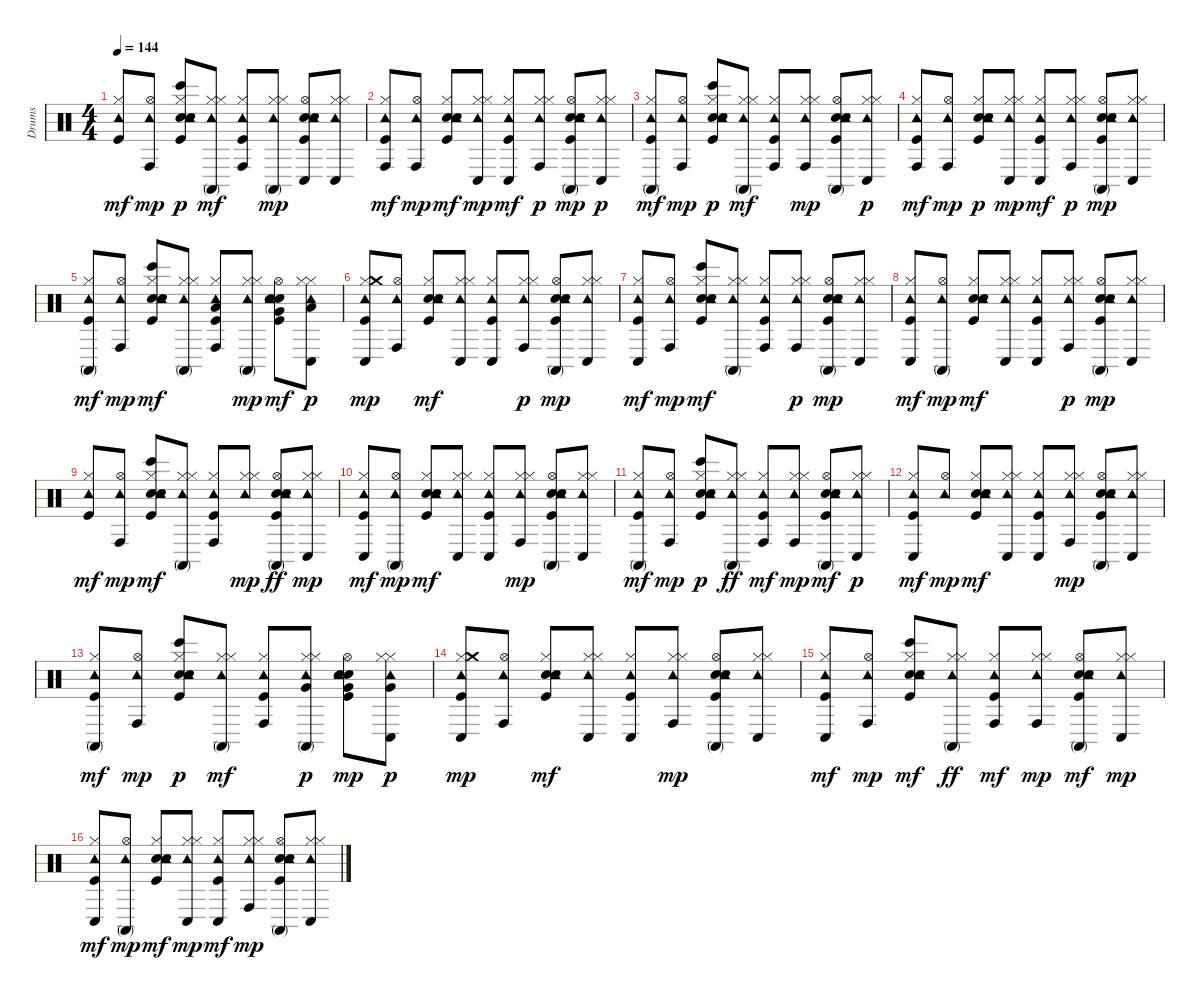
\track ("Drums" "Drums") {instrument percussion}
\staff {score}
\articulation defaults
\ts (4 4)
\tempo 144
\clef neutral
\ks c
("Kick (hit)" "Hi-Hat (closed)" "Tambourine (hit)").8{dy mf} ("Hi-Hat (open)" "Tambourine (hit)" "Conga high (hit)").8{dy mp} ("Kick (hit)" "Snare (hit) 2" "Hand Clap (hit)" "Hi-Hat (closed)" "Tambourine (hit)" "Bongo High (hit)").8{dy p} ("Hi-Hat (closed)" "Tambourine (hit)" "Conga high (mute)" "Hi-Hat (closed)").8{dy mf} ("Kick (hit)" "Hi-Hat (closed)" "Tambourine (hit)" "Conga high (hit)").8 ("Hi-Hat (closed)" "Tambourine (hit)" "Conga high (mute)" "Hi-Hat (closed)").8{dy mp} ("Kick (hit)" "Snare (hit) 2" "Hand Clap (hit)" "Hi-Hat (open)" "Tambourine (hit)" "Conga low (hit)").8 ("Hi-Hat (closed)" "Tambourine (hit)" "Conga low (hit)" "Hi-Hat (closed)").8 |
("Kick (hit)" "Hi-Hat (closed)" "Tambourine (hit)" "Conga high (hit)").8{dy mf} ("Hi-Hat (open)" "Tambourine (hit)" "Conga high (hit)").8{dy mp} ("Kick (hit)" "Snare (hit) 2" "Hand Clap (hit)" "Hi-Hat (closed)" "Tambourine (hit)").8{dy mf} ("Hi-Hat (closed)" "Tambourine (hit)" "Conga low (hit)" "Hi-Hat (closed)").8{dy mp} ("Kick (hit)" "Hi-Hat (closed)" "Tambourine (hit)" "Conga low (hit)").8{dy mf} ("Hi-Hat (closed)" "Tambourine (hit)" "Conga high (hit)" "Hi-Hat (closed)").8{dy p} ("Kick (hit)" "Snare (hit) 2" "Hand Clap (hit)" "Hi-Hat (open)" "Tambourine (hit)" "Conga high (mute)").8{dy mp} ("Hi-Hat (closed)" "Tambourine (hit)" "Conga low (hit)" "Hi-Hat (closed)").8{dy p} |
("Kick (hit)" "Hi-Hat (closed)" "Tambourine (hit)" "Conga high (mute)").8{dy mf} ("Hi-Hat (open)" "Tambourine (hit)" "Conga high (hit)").8{dy mp} ("Kick (hit)" "Snare (hit) 2" "Hand Clap (hit)" "Hi-Hat (closed)" "Tambourine (hit)" "Bongo High (hit)").8{dy p} ("Hi-Hat (closed)" "Tambourine (hit)" "Conga high (mute)" "Hi-Hat (closed)").8{dy mf} ("Kick (hit)" "Hi-Hat (closed)" "Tambourine (hit)" "Conga high (hit)").8 ("Hi-Hat (closed)" "Tambourine (hit)" "Conga high (hit)" "Hi-Hat (closed)").8{dy mp} ("Kick (hit)" "Snare (hit) 2" "Hand Clap (hit)" "Hi-Hat (open)" "Tambourine (hit)" "Conga high (mute)").8 ("Hi-Hat (closed)" "Tambourine (hit)" "Conga low (hit)" "Hi-Hat (closed)").8{dy p} |
("Kick (hit)" "Hi-Hat (closed)" "Tambourine (hit)" "Conga high (hit)").8{dy mf} ("Hi-Hat (open)" "Tambourine (hit)" "Conga high (hit)").8{dy mp} ("Kick (hit)" "Snare (hit) 2" "Hand Clap (hit)" "Hi-Hat (closed)" "Tambourine (hit)").8{dy p} ("Hi-Hat (closed)" "Tambourine (hit)" "Conga low (hit)" "Hi-Hat (closed)").8{dy mp} ("Kick (hit)" "Hi-Hat (closed)" "Tambourine (hit)" "Conga low (hit)").8{dy mf} ("Hi-Hat (closed)" "Tambourine (hit)" "Conga high (hit)" "Hi-Hat (closed)").8{dy p} ("Kick (hit)" "Snare (hit) 2" "Hand Clap (hit)" "Hi-Hat (open)" "Tambourine (hit)" "Conga high (mute)").8{dy mp} ("Hi-Hat (closed)" "Tambourine (hit)" "Conga low (hit)" "Hi-Hat (closed)").8 |
("Kick (hit)" "Hi-Hat (closed)" "Tambourine (hit)" "Conga high (mute)").8{dy mf} ("Hi-Hat (open)" "Tambourine (hit)" "Conga high (hit)").8{dy mp} ("Kick (hit)" "Snare (hit) 2" "Hand Clap (hit)" "Hi-Hat (closed)" "Tambourine (hit)" "Bongo High (hit)").8{dy mf} ("Hi-Hat (closed)" "Tambourine (hit)" "Conga high (mute)" "Hi-Hat (closed)").8 ("Kick (hit)" "Hi-Hat (closed)" "Low Tom (hit)" "Tambourine (hit)" "Conga high (hit)").8 ("Hi-Hat (closed)" "Tambourine (hit)" "Conga high (mute)" "Hi-Hat (closed)").8{dy mp} ("Kick (hit)" "Snare (hit) 2" "Hand Clap (hit)" "Very Low Tom (hit)" "Hi-Hat (open)" "Tambourine (hit)").8{dy mf} ("Low Floor Tom (hit)" "Hi-Hat (closed)" "Tambourine (hit)" "Conga low (hit)" "Hi-Hat (closed)").8{dy p} |
("Kick (hit)" "Hi-Hat (closed)" "Tambourine (hit)" "Crash medium (hit)" "Conga low (hit)").8{dy mp} ("Hi-Hat (open)" "Tambourine (hit)" "Conga high (hit)").8 ("Kick (hit)" "Snare (hit) 2" "Hand Clap (hit)" "Hi-Hat (closed)" "Tambourine (hit)").8{dy mf} ("Hi-Hat (closed)" "Tambourine (hit)" "Conga low (hit)" "Hi-Hat (closed)").8 ("Kick (hit)" "Hi-Hat (closed)" "Tambourine (hit)" "Conga low (hit)").8 ("Hi-Hat (closed)" "Tambourine (hit)" "Conga high (hit)" "Hi-Hat (closed)").8{dy p} ("Kick (hit)" "Snare (hit) 2" "Hand Clap (hit)" "Hi-Hat (open)" "Tambourine (hit)" "Conga high (mute)").8{dy mp} ("Hi-Hat (closed)" "Tambourine (hit)" "Conga low (hit)" "Hi-Hat (closed)").8 |
("Kick (hit)" "Hi-Hat (closed)" "Tambourine (hit)" "Conga low (hit)").8{dy mf} ("Hi-Hat (open)" "Tambourine (hit)" "Conga high (hit)").8{dy mp} ("Kick (hit)" "Snare (hit) 2" "Hand Clap (hit)" "Hi-Hat (closed)" "Tambourine (hit)" "Bongo High (hit)").8{dy mf} ("Hi-Hat (closed)" "Tambourine (hit)" "Conga high (mute)" "Hi-Hat (closed)").8 ("Kick (hit)" "Hi-Hat (closed)" "Tambourine (hit)" "Conga high (hit)").8 ("Hi-Hat (closed)" "Tambourine (hit)" "Conga high (hit)" "Hi-Hat (closed)").8{dy p} ("Kick (hit)" "Snare (hit) 2" "Hand Clap (hit)" "Hi-Hat (open)" "Tambourine (hit)" "Conga high (mute)").8{dy mp} ("Hi-Hat (closed)" "Tambourine (hit)" "Conga low (hit)" "Hi-Hat (closed)").8 |
("Kick (hit)" "Hi-Hat (closed)" "Tambourine (hit)" "Conga low (hit)").8{dy mf} ("Hi-Hat (open)" "Tambourine (hit)" "Conga high (mute)").8{dy mp} ("Kick (hit)" "Snare (hit) 2" "Hand Clap (hit)" "Hi-Hat (closed)" "Tambourine (hit)").8{dy mf} ("Hi-Hat (closed)" "Tambourine (hit)" "Conga low (hit)" "Hi-Hat (closed)").8 ("Kick (hit)" "Hi-Hat (closed)" "Tambourine (hit)" "Conga low (hit)").8 ("Hi-Hat (closed)" "Tambourine (hit)" "Conga high (hit)" "Hi-Hat (closed)").8{dy p} ("Kick (hit)" "Snare (hit) 2" "Hand Clap (hit)" "Hi-Hat (open)" "Tambourine (hit)" "Conga high (mute)").8{dy mp} ("Hi-Hat (closed)" "Tambourine (hit)" "Conga low (hit)" "Hi-Hat (closed)").8 |
("Kick (hit)" "Hi-Hat (closed)" "Tambourine (hit)").8{dy mf} ("Hi-Hat (open)" "Tambourine (hit)" "Conga high (hit)").8{dy mp} ("Kick (hit)" "Snare (hit) 2" "Hand Clap (hit)" "Hi-Hat (closed)" "Tambourine (hit)" "Bongo High (hit)").8{dy mf} ("Hi-Hat (closed)" "Tambourine (hit)" "Conga high (mute)" "Hi-Hat (closed)").8 ("Kick (hit)" "Hi-Hat (closed)" "Tambourine (hit)" "Conga high (hit)").8 ("Hi-Hat (closed)" "Tambourine (hit)" "Hi-Hat (closed)").8{dy mp} ("Kick (hit)" "Snare (hit) 2" "Hand Clap (hit)" "Hi-Hat (open)" "Tambourine (hit)" "Conga high (mute)").8{dy ff} ("Hi-Hat (closed)" "Tambourine (hit)" "Conga low (hit)" "Hi-Hat (closed)").8{dy mp} |
("Kick (hit)" "Hi-Hat (closed)" "Tambourine (hit)" "Conga low (hit)").8{dy mf} ("Hi-Hat (open)" "Tambourine (hit)" "Conga high (mute)").8{dy mp} ("Kick (hit)" "Snare (hit) 2" "Hand Clap (hit)" "Hi-Hat (closed)" "Tambourine (hit)").8{dy mf} ("Hi-Hat (closed)" "Tambourine (hit)" "Conga low (hit)" "Hi-Hat (closed)").8 ("Kick (hit)" "Hi-Hat (closed)" "Tambourine (hit)" "Conga low (hit)").8 ("Hi-Hat (closed)" "Tambourine (hit)" "Conga high (hit)" "Hi-Hat (closed)").8{dy mp} ("Kick (hit)" "Snare (hit) 2" "Hand Clap (hit)" "Hi-Hat (open)" "Tambourine (hit)" "Conga high (mute)").8 ("Hi-Hat (closed)" "Tambourine (hit)" "Conga low (hit)" "Hi-Hat (closed)").8 |
("Kick (hit)" "Hi-Hat (closed)" "Tambourine (hit)" "Conga high (mute)").8{dy mf} ("Hi-Hat (open)" "Tambourine (hit)" "Conga high (hit)").8{dy mp} ("Kick (hit)" "Snare (hit) 2" "Hand Clap (hit)" "Hi-Hat (closed)" "Tambourine (hit)" "Bongo High (hit)").8{dy p} ("Hi-Hat (closed)" "Tambourine (hit)" "Conga high (mute)" "Hi-Hat (closed)").8{dy ff} ("Kick (hit)" "Hi-Hat (closed)" "Tambourine (hit)" "Conga high (hit)").8{dy mf} ("Hi-Hat (closed)" "Tambourine (hit)" "Conga high (hit)" "Hi-Hat (closed)").8{dy mp} ("Kick (hit)" "Snare (hit) 2" "Hand Clap (hit)" "Hi-Hat (open)" "Tambourine (hit)" "Conga high (mute)").8{dy mf} ("Hi-Hat (closed)" "Tambourine (hit)" "Conga low (hit)" "Hi-Hat (closed)").8{dy p} |
("Kick (hit)" "Hi-Hat (closed)" "Tambourine (hit)" "Conga low (hit)").8{dy mf} ("Hi-Hat (open)" "Tambourine (hit)").8{dy mp} ("Kick (hit)" "Snare (hit) 2" "Hand Clap (hit)" "Hi-Hat (closed)" "Tambourine (hit)").8{dy mf} ("Hi-Hat (closed)" "Tambourine (hit)" "Conga low (hit)" "Hi-Hat (closed)").8 ("Kick (hit)" "Hi-Hat (closed)" "Tambourine (hit)" "Conga low (hit)").8 ("Hi-Hat (closed)" "Tambourine (hit)" "Conga high (hit)" "Hi-Hat (closed)").8{dy mp} ("Kick (hit)" "Snare (hit) 2" "Hand Clap (hit)" "Hi-Hat (open)" "Tambourine (hit)" "Conga high (mute)").8 ("Hi-Hat (closed)" "Tambourine (hit)" "Conga low (hit)" "Hi-Hat (closed)").8 |
("Kick (hit)" "Hi-Hat (closed)" "Tambourine (hit)" "Conga high (mute)").8{dy mf} ("Hi-Hat (open)" "Tambourine (hit)" "Conga high (hit)").8{dy mp} ("Kick (hit)" "Snare (hit) 2" "Hand Clap (hit)" "Hi-Hat (closed)" "Tambourine (hit)" "Bongo High (hit)").8{dy p} ("Hi-Hat (closed)" "Tambourine (hit)" "Conga high (mute)" "Hi-Hat (closed)").8{dy mf} ("Kick (hit)" "Hi-Hat (closed)" "Tambourine (hit)" "Conga high (hit)").8 ("Hi-Hat (closed)" "Very Low Tom (hit)" "Tambourine (hit)" "Conga high (mute)" "Hi-Hat (closed)").8{dy p} ("Kick (hit)" "Snare (hit) 2" "Hand Clap (hit)" "Very Low Tom (hit)" "Hi-Hat (open)" "Tambourine (hit)").8{dy mp} ("Hi-Hat (closed)" "Very Low Tom (hit)" "Tambourine (hit)" "Conga low (hit)" "Hi-Hat (closed)").8{dy p} |
("Kick (hit)" "Hi-Hat (closed)" "Tambourine (hit)" "Crash medium (hit)" "Conga low (hit)").8{dy mp} ("Hi-Hat (open)" "Tambourine (hit)" "Conga high (hit)").8 ("Kick (hit)" "Snare (hit) 2" "Hand Clap (hit)" "Hi-Hat (closed)" "Tambourine (hit)").8{dy mf} ("Hi-Hat (closed)" "Tambourine (hit)" "Conga low (hit)" "Hi-Hat (closed)").8 ("Kick (hit)" "Hi-Hat (closed)" "Tambourine (hit)" "Conga low (hit)").8 ("Hi-Hat (closed)" "Tambourine (hit)" "Conga high (hit)" "Hi-Hat (closed)").8{dy mp} ("Kick (hit)" "Snare (hit) 2" "Hand Clap (hit)" "Hi-Hat (open)" "Tambourine (hit)" "Conga high (mute)").8 ("Hi-Hat (closed)" "Tambourine (hit)" "Conga low (hit)" "Hi-Hat (closed)").8 |
("Kick (hit)" "Hi-Hat (closed)" "Tambourine (hit)" "Conga low (hit)").8{dy mf} ("Hi-Hat (open)" "Tambourine (hit)" "Conga high (hit)").8{dy mp} ("Kick (hit)" "Snare (hit) 2" "Hand Clap (hit)" "Hi-Hat (closed)" "Tambourine (hit)" "Bongo High (hit)").8{dy mf} ("Hi-Hat (closed)" "Tambourine (hit)" "Conga high (mute)" "Hi-Hat (closed)").8{dy ff} ("Kick (hit)" "Hi-Hat (closed)" "Tambourine (hit)" "Conga high (hit)").8{dy mf} ("Hi-Hat (closed)" "Tambourine (hit)" "Conga high (hit)" "Hi-Hat (closed)").8{dy mp} ("Kick (hit)" "Snare (hit) 2" "Hand Clap (hit)" "Hi-Hat (open)" "Tambourine (hit)" "Conga high (mute)").8{dy mf} ("Hi-Hat (closed)" "Tambourine (hit)" "Conga low (hit)" "Hi-Hat (closed)").8{dy mp} |
("Kick (hit)" "Hi-Hat (closed)" "Tambourine (hit)" "Conga low (hit)").8{dy mf} ("Hi-Hat (open)" "Tambourine (hit)" "Conga high (mute)").8{dy mp} ("Kick (hit)" "Snare (hit) 2" "Hand Clap (hit)" "Hi-Hat (closed)" "Tambourine (hit)").8{dy mf} ("Hi-Hat (closed)" "Tambourine (hit)" "Conga low (hit)" "Hi-Hat (closed)").8{dy mp} ("Kick (hit)" "Hi-Hat (closed)" "Tambourine (hit)" "Conga low (hit)").8{dy mf} ("Hi-Hat (closed)" "Tambourine (hit)" "Conga high (hit)" "Hi-Hat (closed)").8{dy mp} ("Kick (hit)" "Snare (hit) 2" "Hand Clap (hit)" "Hi-Hat (open)" "Tambourine (hit)" "Conga high (mute)").8 ("Hi-Hat (closed)" "Tambourine (hit)" "Conga low (hit)" "Hi-Hat (closed)").8
